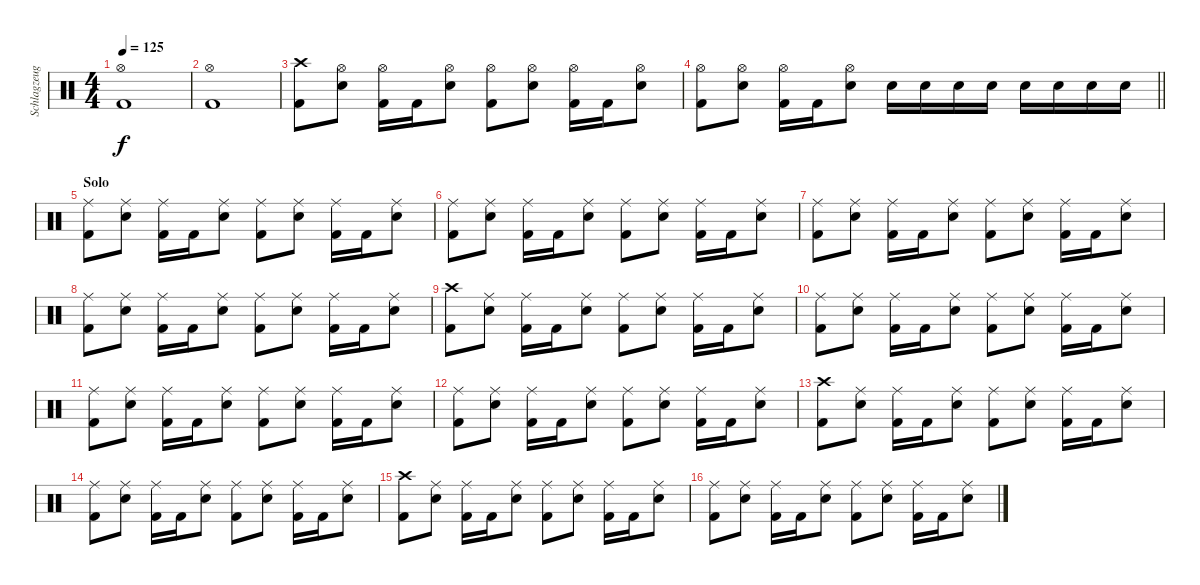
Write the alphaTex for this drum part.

\track ("Schlagzeug" "Schlagzeug") {instrument percussion}
\staff {score}
\articulation defaults
\ts (4 4)
\tempo 125
\clef neutral
\ks c
("Hi-Hat (open)" "Kick (hit) 2").1{dy f} |
("Hi-Hat (open)" "Kick (hit) 2").1 |
("Crash high (hit)" "Kick (hit) 2").8 ("Hi-Hat (open)" "Electric Snare (hit)").8 ("Hi-Hat (open)" "Kick (hit) 2").16 "Kick (hit) 2".16 ("Hi-Hat (open)" "Electric Snare (hit)").8 ("Hi-Hat (open)" "Kick (hit) 2").8 ("Hi-Hat (open)" "Electric Snare (hit)").8 ("Hi-Hat (open)" "Kick (hit) 2").16 "Kick (hit) 2".16 ("Hi-Hat (open)" "Electric Snare (hit)").8 |
\barLineRight lightlight
("Hi-Hat (open)" "Kick (hit) 2").8 ("Hi-Hat (open)" "Electric Snare (hit)").8 ("Hi-Hat (open)" "Kick (hit) 2").16 "Kick (hit) 2".16 ("Hi-Hat (open)" "Electric Snare (hit)").8 "Electric Snare (hit)".16 "Electric Snare (hit)".16 "Electric Snare (hit)".16 "Electric Snare (hit)".16 "Electric Snare (hit)".16 "Electric Snare (hit)".16 "Electric Snare (hit)".16 "Electric Snare (hit)".16 |
\section ("" "Solo")
("Ride (middle)" "Kick (hit) 2").8 ("Ride (middle)" "Electric Snare (hit)").8 ("Ride (middle)" "Kick (hit) 2").16 "Kick (hit) 2".16 ("Ride (middle)" "Electric Snare (hit)").8 ("Ride (middle)" "Kick (hit) 2").8 ("Ride (middle)" "Electric Snare (hit)").8 ("Ride (middle)" "Kick (hit) 2").16 "Kick (hit) 2".16 ("Ride (middle)" "Electric Snare (hit)").8 |
("Ride (middle)" "Kick (hit) 2").8 ("Ride (middle)" "Electric Snare (hit)").8 ("Ride (middle)" "Kick (hit) 2").16 "Kick (hit) 2".16 ("Ride (middle)" "Electric Snare (hit)").8 ("Ride (middle)" "Kick (hit) 2").8 ("Ride (middle)" "Electric Snare (hit)").8 ("Ride (middle)" "Kick (hit) 2").16 "Kick (hit) 2".16 ("Ride (middle)" "Electric Snare (hit)").8 |
("Ride (middle)" "Kick (hit) 2").8 ("Ride (middle)" "Electric Snare (hit)").8 ("Ride (middle)" "Kick (hit) 2").16 "Kick (hit) 2".16 ("Ride (middle)" "Electric Snare (hit)").8 ("Ride (middle)" "Kick (hit) 2").8 ("Ride (middle)" "Electric Snare (hit)").8 ("Ride (middle)" "Kick (hit) 2").16 "Kick (hit) 2".16 ("Ride (middle)" "Electric Snare (hit)").8 |
("Ride (middle)" "Kick (hit) 2").8 ("Ride (middle)" "Electric Snare (hit)").8 ("Ride (middle)" "Kick (hit) 2").16 "Kick (hit) 2".16 ("Ride (middle)" "Electric Snare (hit)").8 ("Ride (middle)" "Kick (hit) 2").8 ("Ride (middle)" "Electric Snare (hit)").8 ("Ride (middle)" "Kick (hit) 2").16 "Kick (hit) 2".16 ("Ride (middle)" "Electric Snare (hit)").8 |
("Crash high (hit)" "Kick (hit) 2").8 ("Ride (middle)" "Electric Snare (hit)").8 ("Ride (middle)" "Kick (hit) 2").16 "Kick (hit) 2".16 ("Ride (middle)" "Electric Snare (hit)").8 ("Ride (middle)" "Kick (hit) 2").8 ("Ride (middle)" "Electric Snare (hit)").8 ("Ride (middle)" "Kick (hit) 2").16 "Kick (hit) 2".16 ("Ride (middle)" "Electric Snare (hit)").8 |
("Ride (middle)" "Kick (hit) 2").8 ("Ride (middle)" "Electric Snare (hit)").8 ("Ride (middle)" "Kick (hit) 2").16 "Kick (hit) 2".16 ("Ride (middle)" "Electric Snare (hit)").8 ("Ride (middle)" "Kick (hit) 2").8 ("Ride (middle)" "Electric Snare (hit)").8 ("Ride (middle)" "Kick (hit) 2").16 "Kick (hit) 2".16 ("Ride (middle)" "Electric Snare (hit)").8 |
("Ride (middle)" "Kick (hit) 2").8 ("Ride (middle)" "Electric Snare (hit)").8 ("Ride (middle)" "Kick (hit) 2").16 "Kick (hit) 2".16 ("Ride (middle)" "Electric Snare (hit)").8 ("Ride (middle)" "Kick (hit) 2").8 ("Ride (middle)" "Electric Snare (hit)").8 ("Ride (middle)" "Kick (hit) 2").16 "Kick (hit) 2".16 ("Ride (middle)" "Electric Snare (hit)").8 |
("Ride (middle)" "Kick (hit) 2").8 ("Ride (middle)" "Electric Snare (hit)").8 ("Ride (middle)" "Kick (hit) 2").16 "Kick (hit) 2".16 ("Ride (middle)" "Electric Snare (hit)").8 ("Ride (middle)" "Kick (hit) 2").8 ("Ride (middle)" "Electric Snare (hit)").8 ("Ride (middle)" "Kick (hit) 2").16 "Kick (hit) 2".16 ("Ride (middle)" "Electric Snare (hit)").8 |
("Crash high (hit)" "Kick (hit) 2").8 ("Ride (middle)" "Electric Snare (hit)").8 ("Ride (middle)" "Kick (hit) 2").16 "Kick (hit) 2".16 ("Ride (middle)" "Electric Snare (hit)").8 ("Ride (middle)" "Kick (hit) 2").8 ("Ride (middle)" "Electric Snare (hit)").8 ("Ride (middle)" "Kick (hit) 2").16 "Kick (hit) 2".16 ("Ride (middle)" "Electric Snare (hit)").8 |
("Ride (middle)" "Kick (hit) 2").8 ("Ride (middle)" "Electric Snare (hit)").8 ("Ride (middle)" "Kick (hit) 2").16 "Kick (hit) 2".16 ("Ride (middle)" "Electric Snare (hit)").8 ("Ride (middle)" "Kick (hit) 2").8 ("Ride (middle)" "Electric Snare (hit)").8 ("Ride (middle)" "Kick (hit) 2").16 "Kick (hit) 2".16 ("Ride (middle)" "Electric Snare (hit)").8 |
("Crash high (hit)" "Kick (hit) 2").8 ("Ride (middle)" "Electric Snare (hit)").8 ("Ride (middle)" "Kick (hit) 2").16 "Kick (hit) 2".16 ("Ride (middle)" "Electric Snare (hit)").8 ("Ride (middle)" "Kick (hit) 2").8 ("Ride (middle)" "Electric Snare (hit)").8 ("Ride (middle)" "Kick (hit) 2").16 "Kick (hit) 2".16 ("Ride (middle)" "Electric Snare (hit)").8 |
("Ride (middle)" "Kick (hit) 2").8 ("Ride (middle)" "Electric Snare (hit)").8 ("Ride (middle)" "Kick (hit) 2").16 "Kick (hit) 2".16 ("Ride (middle)" "Electric Snare (hit)").8 ("Ride (middle)" "Kick (hit) 2").8 ("Ride (middle)" "Electric Snare (hit)").8 ("Ride (middle)" "Kick (hit) 2").16 "Kick (hit) 2".16 ("Ride (middle)" "Electric Snare (hit)").8
